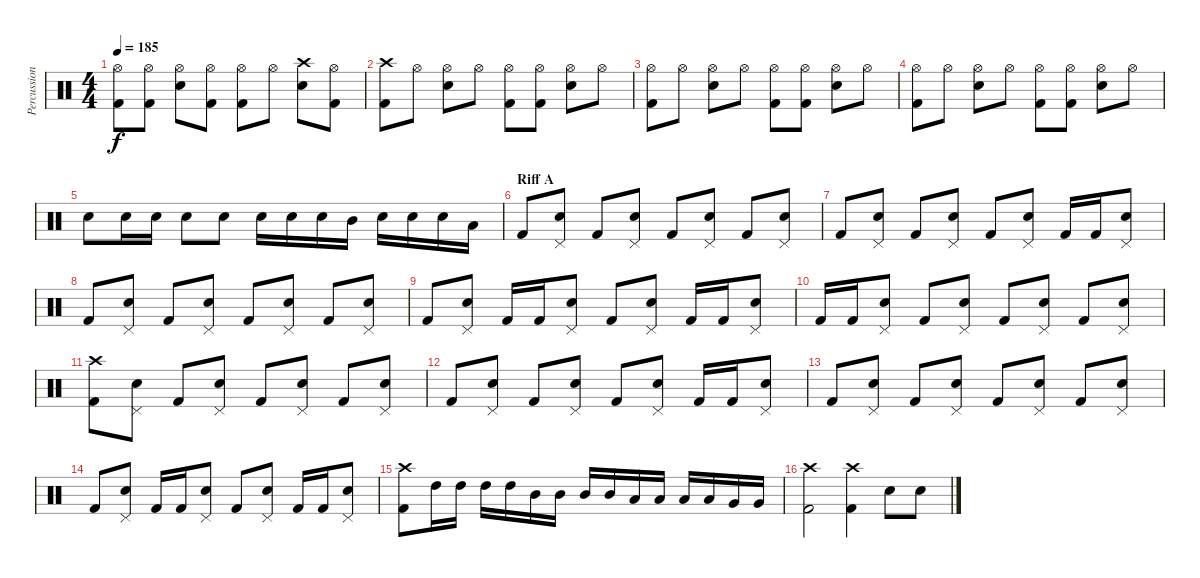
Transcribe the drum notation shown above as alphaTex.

\track ("Percussions" "Percussion") {instrument percussion}
\staff {score}
\articulation defaults
\ts (4 4)
\tempo 185
\clef neutral
\ks c
("Hi-Hat (open)" "Kick (hit) 2").8{dy f} ("Hi-Hat (open)" "Kick (hit) 2").8 ("Hi-Hat (open)" "Snare (hit) 2").8 ("Hi-Hat (open)" "Kick (hit) 2").8 ("Hi-Hat (open)" "Kick (hit) 2").8 "Hi-Hat (open)".8 ("Crash high (hit)" "Snare (hit) 2").8 ("Hi-Hat (open)" "Kick (hit) 2").8 |
("Crash high (hit)" "Kick (hit) 2").8 "Hi-Hat (open)".8 ("Hi-Hat (open)" "Snare (hit) 2").8 "Hi-Hat (open)".8 ("Hi-Hat (open)" "Kick (hit) 2").8 ("Hi-Hat (open)" "Kick (hit) 2").8 ("Hi-Hat (open)" "Snare (hit) 2").8 "Hi-Hat (open)".8 |
("Hi-Hat (open)" "Kick (hit) 2").8 "Hi-Hat (open)".8 ("Hi-Hat (open)" "Snare (hit) 2").8 "Hi-Hat (open)".8 ("Hi-Hat (open)" "Kick (hit) 2").8 ("Hi-Hat (open)" "Kick (hit) 2").8 ("Hi-Hat (open)" "Snare (hit) 2").8 "Hi-Hat (open)".8 |
("Hi-Hat (open)" "Kick (hit) 2").8 "Hi-Hat (open)".8 ("Hi-Hat (open)" "Snare (hit) 2").8 "Hi-Hat (open)".8 ("Hi-Hat (open)" "Kick (hit) 2").8 ("Hi-Hat (open)" "Kick (hit) 2").8 ("Hi-Hat (open)" "Snare (hit) 2").8 "Hi-Hat (open)".8 |
"Snare (hit) 2".8 "Snare (hit) 2".16 "Snare (hit) 2".16 "Snare (hit) 2".8 "Snare (hit) 2".8 "Snare (hit) 2".16 "Snare (hit) 2".16 "Snare (hit) 2".16 "Mid Tom (hit)".16 "Snare (hit) 2".16 "Snare (hit) 2".16 "Snare (hit) 2".16 "Low Tom (hit)".16 |
\section ("" "Riff A")
"Kick (hit) 2".8 ("Pedal Hi-Hat (hit)" "Snare (hit) 2").8 "Kick (hit) 2".8 ("Pedal Hi-Hat (hit)" "Snare (hit) 2").8 "Kick (hit) 2".8 ("Pedal Hi-Hat (hit)" "Snare (hit) 2").8 "Kick (hit) 2".8 ("Pedal Hi-Hat (hit)" "Snare (hit) 2").8 |
"Kick (hit) 2".8 ("Pedal Hi-Hat (hit)" "Snare (hit) 2").8 "Kick (hit) 2".8 ("Pedal Hi-Hat (hit)" "Snare (hit) 2").8 "Kick (hit) 2".8 ("Pedal Hi-Hat (hit)" "Snare (hit) 2").8 "Kick (hit) 2".16 "Kick (hit) 2".16 ("Pedal Hi-Hat (hit)" "Snare (hit) 2").8 |
"Kick (hit) 2".8 ("Pedal Hi-Hat (hit)" "Snare (hit) 2").8 "Kick (hit) 2".8 ("Pedal Hi-Hat (hit)" "Snare (hit) 2").8 "Kick (hit) 2".8 ("Pedal Hi-Hat (hit)" "Snare (hit) 2").8 "Kick (hit) 2".8 ("Pedal Hi-Hat (hit)" "Snare (hit) 2").8 |
"Kick (hit) 2".8 ("Pedal Hi-Hat (hit)" "Snare (hit) 2").8 "Kick (hit) 2".16 "Kick (hit) 2".16 ("Pedal Hi-Hat (hit)" "Snare (hit) 2").8 "Kick (hit) 2".8 ("Pedal Hi-Hat (hit)" "Snare (hit) 2").8 "Kick (hit) 2".16 "Kick (hit) 2".16 ("Pedal Hi-Hat (hit)" "Snare (hit) 2").8 |
"Kick (hit) 2".16 "Kick (hit) 2".16 ("Pedal Hi-Hat (hit)" "Snare (hit) 2").8 "Kick (hit) 2".8 ("Pedal Hi-Hat (hit)" "Snare (hit) 2").8 "Kick (hit) 2".8 ("Pedal Hi-Hat (hit)" "Snare (hit) 2").8 "Kick (hit) 2".8 ("Pedal Hi-Hat (hit)" "Snare (hit) 2").8 |
("Crash high (hit)" "Kick (hit) 2").8 ("Pedal Hi-Hat (hit)" "Snare (hit) 2").8 "Kick (hit) 2".8 ("Pedal Hi-Hat (hit)" "Snare (hit) 2").8 "Kick (hit) 2".8 ("Pedal Hi-Hat (hit)" "Snare (hit) 2").8 "Kick (hit) 2".8 ("Pedal Hi-Hat (hit)" "Snare (hit) 2").8 |
"Kick (hit) 2".8 ("Pedal Hi-Hat (hit)" "Snare (hit) 2").8 "Kick (hit) 2".8 ("Pedal Hi-Hat (hit)" "Snare (hit) 2").8 "Kick (hit) 2".8 ("Pedal Hi-Hat (hit)" "Snare (hit) 2").8 "Kick (hit) 2".16 "Kick (hit) 2".16 ("Pedal Hi-Hat (hit)" "Snare (hit) 2").8 |
"Kick (hit) 2".8 ("Pedal Hi-Hat (hit)" "Snare (hit) 2").8 "Kick (hit) 2".8 ("Pedal Hi-Hat (hit)" "Snare (hit) 2").8 "Kick (hit) 2".8 ("Pedal Hi-Hat (hit)" "Snare (hit) 2").8 "Kick (hit) 2".8 ("Pedal Hi-Hat (hit)" "Snare (hit) 2").8 |
"Kick (hit) 2".8 ("Pedal Hi-Hat (hit)" "Snare (hit) 2").8 "Kick (hit) 2".16 "Kick (hit) 2".16 ("Pedal Hi-Hat (hit)" "Snare (hit) 2").8 "Kick (hit) 2".8 ("Pedal Hi-Hat (hit)" "Snare (hit) 2").8 "Kick (hit) 2".16 "Kick (hit) 2".16 ("Pedal Hi-Hat (hit)" "Snare (hit) 2").8 |
("Crash high (hit)" "Kick (hit) 2").8 "High Tom (hit)".16 "High Tom (hit)".16 "High Tom (hit)".16 "High Tom (hit)".16 "Mid Tom (hit)".16 "Mid Tom (hit)".16 "Mid Tom (hit)".16 "Mid Tom (hit)".16 "Low Tom (hit)".16 "Low Tom (hit)".16 "Low Tom (hit)".16 "Low Tom (hit)".16 "Very Low Tom (hit)".16 "Very Low Tom (hit)".16 |
("Crash high (hit)" "Kick (hit) 2").2 ("Crash high (hit)" "Kick (hit) 2").4 "Snare (hit) 2".8 "Snare (hit) 2".8
